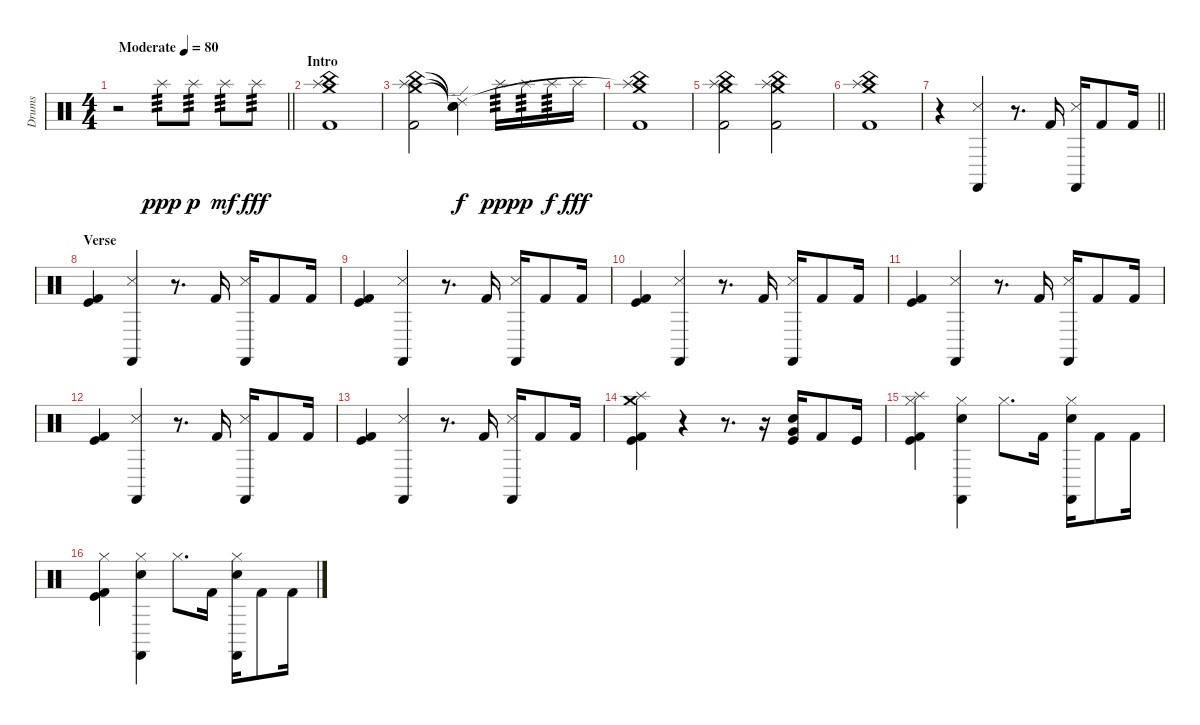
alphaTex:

\track ("Drums" "Drums") {instrument percussion}
\staff {score}
\articulation defaults
\ts (4 4)
\tempo (80 "Moderate")
\clef neutral
\barLineRight lightlight
\ks c
r.2{dy ppp} "Splash (hit)".8{tp 3} "Splash (hit)".8{tp 3 dy p} "Splash (hit)".8{tp 3 dy mf} "Splash (hit)".8{tp 3 dy fff} |
\section ("" "Intro")
("Crash medium (hit)" "China (hit)" "Splash (hit)" "Kick (hit) 2").1 |
("Crash medium (hit)" "China (hit)" "Splash (hit)" "Kick (hit) 2").2 ("Snare (hit)"{t} "Ride (edge) 2"{t} "Snare (hit)"{t}).4{dy f} "Splash (hit)".16{tp 3 dy ppp} "Splash (hit)".16{tp 3 dy p} "Splash (hit)".16{tp 3 dy f} "Splash (hit)".16{dy fff} |
("Crash medium (hit)" "Splash (hit)"{t} "China (hit)" "Kick (hit) 2").1 |
("Crash medium (hit)" "Splash (hit)" "China (hit)" "Kick (hit) 2").2 ("Crash medium (hit)" "Splash (hit)" "China (hit)" "Kick (hit) 2").2 |
("Crash medium (hit)" "Splash (hit)" "China (hit)" "Kick (hit) 2").1 |
\barLineRight lightlight
r.4 ("Castanets (hit)" "Snare (side stick) 3").4 r.8{d} "Kick (hit) 2".16 ("Castanets (hit)" "Snare (side stick) 3").16 "Kick (hit) 2".8 "Kick (hit) 2".16 |
\section ("" "Verse")
("Kick (hit)" "Kick (hit) 2").4 ("Castanets (hit)" "Snare (side stick) 3").4 r.8{d} "Kick (hit) 2".16 ("Castanets (hit)" "Snare (side stick) 3").16 "Kick (hit) 2".8 "Kick (hit) 2".16 |
("Kick (hit)" "Kick (hit) 2").4 ("Castanets (hit)" "Snare (side stick) 3").4 r.8{d} "Kick (hit) 2".16 ("Castanets (hit)" "Snare (side stick) 3").16 "Kick (hit) 2".8 "Kick (hit) 2".16 |
("Kick (hit)" "Kick (hit) 2").4 ("Castanets (hit)" "Snare (side stick) 3").4 r.8{d} "Kick (hit) 2".16 ("Castanets (hit)" "Snare (side stick) 3").16 "Kick (hit) 2".8 "Kick (hit) 2".16 |
("Kick (hit)" "Kick (hit) 2").4 ("Castanets (hit)" "Snare (side stick) 3").4 r.8{d} "Kick (hit) 2".16 ("Castanets (hit)" "Snare (side stick) 3").16 "Kick (hit) 2".8 "Kick (hit) 2".16 |
("Kick (hit)" "Kick (hit) 2").4 ("Castanets (hit)" "Snare (side stick) 3").4 r.8{d} "Kick (hit) 2".16 ("Castanets (hit)" "Snare (side stick) 3").16 "Kick (hit) 2".8 "Kick (hit) 2".16 |
("Kick (hit)" "Kick (hit) 2").4 ("Castanets (hit)" "Snare (side stick) 3").4 r.8{d} "Kick (hit) 2".16 ("Castanets (hit)" "Snare (side stick) 3").16 "Kick (hit) 2".8 "Kick (hit) 2".16 |
("Crash medium (hit)" "Splash (hit)" "Kick (hit)" "Kick (hit) 2").4 r.4 r.8{d} r.16 ("Very Low Tom (hit)" "Snare (hit) 2" "Kick (hit)").16 "Kick (hit) 2".8 "Kick (hit)".16 |
("Splash (hit)" "Hi-Hat (closed)" "Kick (hit)" "Kick (hit) 2").4 ("Hi-Hat (closed)" "Castanets (hit)" "Snare (hit) 2").4 "Hi-Hat (closed)".8{d} "Kick (hit) 2".16 ("Hi-Hat (closed)" "Castanets (hit)" "Snare (hit) 2").16 "Kick (hit) 2".8 "Kick (hit) 2".16 |
("Hi-Hat (closed)" "Kick (hit)" "Kick (hit) 2").4 ("Hi-Hat (closed)" "Castanets (hit)" "Snare (hit) 2").4 "Hi-Hat (closed)".8{d} "Kick (hit) 2".16 ("Hi-Hat (closed)" "Castanets (hit)" "Snare (hit) 2").16 "Kick (hit) 2".8 "Kick (hit) 2".16
